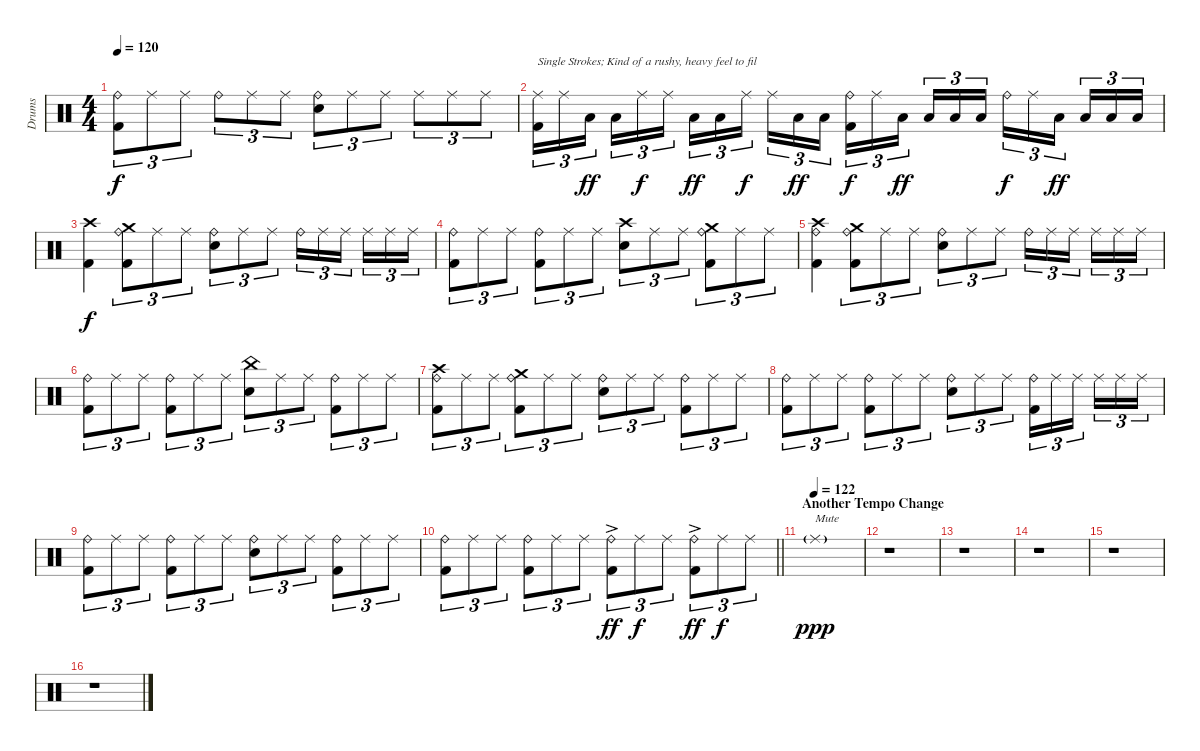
\track ("Drums" "Drums") {instrument percussion}
\staff {score}
\articulation defaults
\ts (4 4)
\tempo 120
\clef neutral
\ks c
("Ride (bell)" "Kick (hit) 2").8{tu (3 2) dy f} "Ride (middle)".8{tu (3 2)} "Ride (middle)".8{tu (3 2)} "Ride (bell)".8{tu (3 2)} "Ride (middle)".8{tu (3 2)} "Ride (middle)".8{tu (3 2)} ("Ride (bell)" "Electric Snare (hit)").8{tu (3 2)} "Ride (middle)".8{tu (3 2)} "Ride (middle)".8{tu (3 2)} "Ride (middle)".8{tu (3 2)} "Ride (middle)".8{tu (3 2)} "Ride (middle)".8{tu (3 2)} |
("Ride (middle)" "Kick (hit) 2").16{tu (3 2) txt "Single Strokes; Kind of a rushy, heavy feel to fil"} "Ride (middle)".16{tu (3 2)} "Low Floor Tom (hit)".16{tu (3 2) dy ff beam splitsecondary} "Low Floor Tom (hit)".16{tu (3 2)} "Ride (middle)".16{tu (3 2) dy f} "Ride (middle)".16{tu (3 2)} "Low Floor Tom (hit)".16{tu (3 2) dy ff} "Low Floor Tom (hit)".16{tu (3 2)} "Ride (middle)".16{tu (3 2) dy f beam splitsecondary} "Ride (middle)".16{tu (3 2)} "Low Floor Tom (hit)".16{tu (3 2) dy ff} "Low Floor Tom (hit)".16{tu (3 2)} ("Ride (bell)" "Kick (hit) 2").16{tu (3 2) dy f} "Ride (middle)".16{tu (3 2)} "Low Floor Tom (hit)".16{tu (3 2) dy ff beam splitsecondary} "Low Floor Tom (hit)".16{tu (3 2)} "Low Floor Tom (hit)".16{tu (3 2)} "Low Floor Tom (hit)".16{tu (3 2)} "Ride (bell)".16{tu (3 2) dy f} "Ride (middle)".16{tu (3 2)} "Low Floor Tom (hit)".16{tu (3 2) dy ff beam splitsecondary} "Low Floor Tom (hit)".16{tu (3 2)} "Low Floor Tom (hit)".16{tu (3 2)} "Low Floor Tom (hit)".16{tu (3 2)} |
("Crash high (hit)" "Kick (hit) 2").4{dy f} ("Ride (bell)" "Crash medium (hit)" "Kick (hit) 2").8{tu (3 2)} "Ride (middle)".8{tu (3 2)} "Ride (middle)".8{tu (3 2)} ("Ride (bell)" "Electric Snare (hit)").8{tu (3 2)} "Ride (middle)".8{tu (3 2)} "Ride (middle)".8{tu (3 2)} "Ride (bell)".16{tu (3 2)} "Ride (middle)".16{tu (3 2)} "Ride (middle)".16{tu (3 2) beam splitsecondary} "Ride (middle)".16{tu (3 2)} "Ride (middle)".16{tu (3 2)} "Ride (middle)".16{tu (3 2)} |
("Ride (bell)" "Kick (hit) 2").8{tu (3 2)} "Ride (middle)".8{tu (3 2)} "Ride (middle)".8{tu (3 2)} ("Ride (bell)" "Kick (hit) 2").8{tu (3 2)} "Ride (middle)".8{tu (3 2)} "Ride (middle)".8{tu (3 2)} ("Crash high (hit)" "Electric Snare (hit)").8{tu (3 2)} "Ride (middle)".8{tu (3 2)} "Ride (middle)".8{tu (3 2)} ("Ride (bell)" "Crash medium (hit)" "Kick (hit) 2").8{tu (3 2)} "Ride (middle)".8{tu (3 2)} "Ride (middle)".8{tu (3 2)} |
("Ride (bell)" "Crash high (hit)" "Kick (hit) 2").4 ("Ride (bell)" "Crash medium (hit)" "Kick (hit) 2").8{tu (3 2)} "Ride (middle)".8{tu (3 2)} "Ride (middle)".8{tu (3 2)} ("Ride (bell)" "Electric Snare (hit)").8{tu (3 2)} "Ride (middle)".8{tu (3 2)} "Ride (middle)".8{tu (3 2)} "Ride (bell)".16{tu (3 2)} "Ride (middle)".16{tu (3 2)} "Ride (middle)".16{tu (3 2) beam splitsecondary} "Ride (middle)".16{tu (3 2)} "Ride (middle)".16{tu (3 2)} "Ride (middle)".16{tu (3 2)} |
("Ride (bell)" "Kick (hit) 2").8{tu (3 2)} "Ride (middle)".8{tu (3 2)} "Ride (middle)".8{tu (3 2)} ("Ride (bell)" "Kick (hit) 2").8{tu (3 2)} "Ride (middle)".8{tu (3 2)} "Ride (middle)".8{tu (3 2)} ("China (hit)" "Electric Snare (hit)").8{tu (3 2)} "Ride (middle)".8{tu (3 2)} "Ride (middle)".8{tu (3 2)} ("Ride (bell)" "Kick (hit) 2").8{tu (3 2)} "Ride (middle)".8{tu (3 2)} "Ride (middle)".8{tu (3 2)} |
("Ride (bell)" "Crash high (hit)" "Kick (hit) 2").8{tu (3 2)} "Ride (middle)".8{tu (3 2)} "Ride (middle)".8{tu (3 2)} ("Ride (bell)" "Crash medium (hit)" "Kick (hit) 2").8{tu (3 2)} "Ride (middle)".8{tu (3 2)} "Ride (middle)".8{tu (3 2)} ("Ride (bell)" "Electric Snare (hit)").8{tu (3 2)} "Ride (middle)".8{tu (3 2)} "Ride (middle)".8{tu (3 2)} ("Ride (bell)" "Kick (hit) 2").8{tu (3 2)} "Ride (middle)".8{tu (3 2)} "Ride (middle)".8{tu (3 2)} |
("Ride (bell)" "Kick (hit) 2").8{tu (3 2)} "Ride (middle)".8{tu (3 2)} "Ride (middle)".8{tu (3 2)} ("Ride (bell)" "Kick (hit) 2").8{tu (3 2)} "Ride (middle)".8{tu (3 2)} "Ride (middle)".8{tu (3 2)} ("Ride (bell)" "Electric Snare (hit)").8{tu (3 2)} "Ride (middle)".8{tu (3 2)} "Ride (middle)".8{tu (3 2)} ("Ride (bell)" "Kick (hit) 2").16{tu (3 2)} "Ride (middle)".16{tu (3 2)} "Ride (middle)".16{tu (3 2) beam splitsecondary} "Ride (middle)".16{tu (3 2)} "Ride (middle)".16{tu (3 2)} "Ride (middle)".16{tu (3 2)} |
("Ride (bell)" "Kick (hit) 2").8{tu (3 2)} "Ride (middle)".8{tu (3 2)} "Ride (middle)".8{tu (3 2)} ("Ride (bell)" "Kick (hit) 2").8{tu (3 2)} "Ride (middle)".8{tu (3 2)} "Ride (middle)".8{tu (3 2)} ("Ride (bell)" "Electric Snare (hit)").8{tu (3 2)} "Ride (middle)".8{tu (3 2)} "Ride (middle)".8{tu (3 2)} ("Ride (bell)" "Kick (hit) 2").8{tu (3 2)} "Ride (middle)".8{tu (3 2)} "Ride (middle)".8{tu (3 2)} |
\barLineRight lightlight
("Ride (bell)" "Kick (hit) 2").8{tu (3 2)} "Ride (middle)".8{tu (3 2)} "Ride (middle)".8{tu (3 2)} ("Ride (bell)" "Kick (hit) 2").8{tu (3 2)} "Ride (middle)".8{tu (3 2)} "Ride (middle)".8{tu (3 2)} ("Ride (bell)"{ac} "Kick (hit) 2").8{tu (3 2) dy ff} "Ride (middle)".8{tu (3 2) dy f} "Ride (middle)".8{tu (3 2)} ("Ride (bell)"{ac} "Kick (hit) 2").8{tu (3 2) dy ff} "Ride (middle)".8{tu (3 2) dy f} "Ride (middle)".8{tu (3 2)} |
\section ("" "Another Tempo Change")
\tempo (122)
"Ride (middle)"{g}.1{txt "Mute" dy ppp} |
r.1 |
r.1 |
r.1 |
r.1 |
r.1
